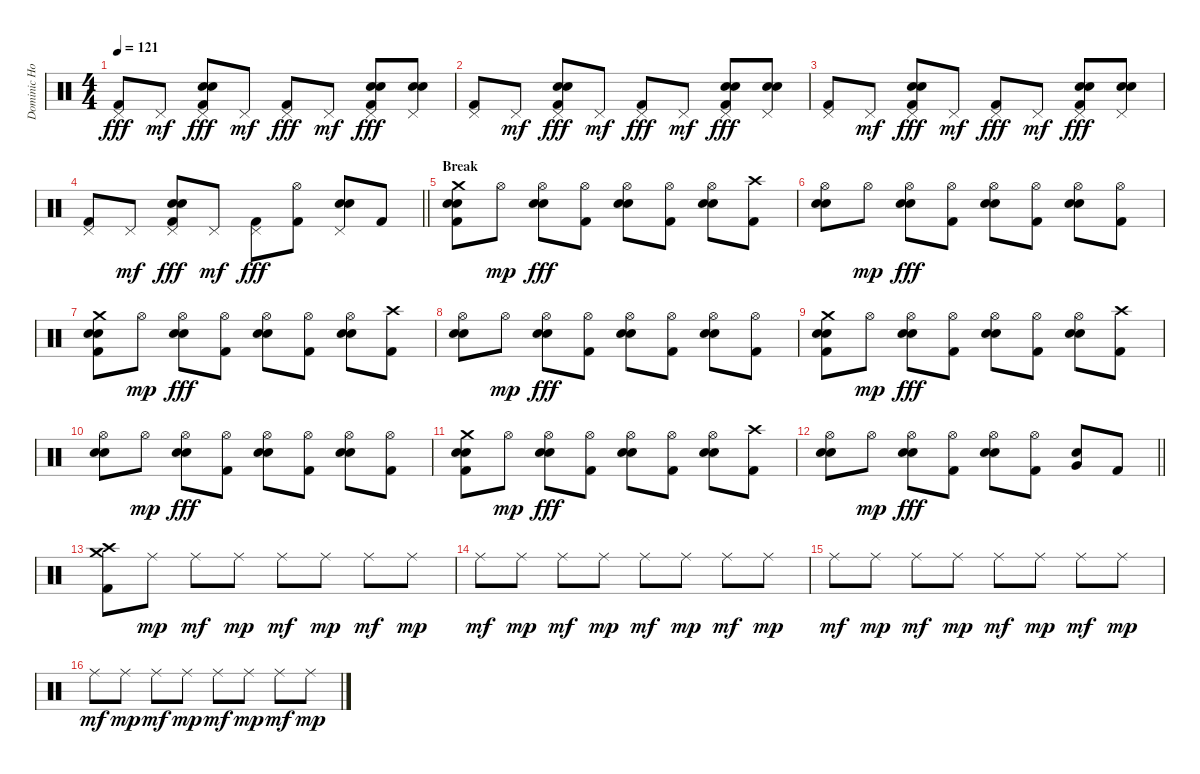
\track ("Dominic Howard" "Dominic Ho") {instrument percussion}
\staff {score}
\articulation defaults
\ts (4 4)
\tempo 121
\clef neutral
\ks c
("Pedal Hi-Hat (hit)" "Kick (hit) 2").8{dy fff} "Pedal Hi-Hat (hit)".8{dy mf} ("Pedal Hi-Hat (hit)" "Hand Clap (hit)" "Electric Snare (hit)" "Kick (hit) 2").8{dy fff} "Pedal Hi-Hat (hit)".8{dy mf} ("Pedal Hi-Hat (hit)" "Kick (hit) 2").8{dy fff} "Pedal Hi-Hat (hit)".8{dy mf} ("Pedal Hi-Hat (hit)" "Hand Clap (hit)" "Electric Snare (hit)" "Kick (hit) 2").8{dy fff} ("Pedal Hi-Hat (hit)" "Hand Clap (hit)" "Electric Snare (hit)").8 |
("Pedal Hi-Hat (hit)" "Kick (hit) 2").8 "Pedal Hi-Hat (hit)".8{dy mf} ("Pedal Hi-Hat (hit)" "Hand Clap (hit)" "Electric Snare (hit)" "Kick (hit) 2").8{dy fff} "Pedal Hi-Hat (hit)".8{dy mf} ("Pedal Hi-Hat (hit)" "Kick (hit) 2").8{dy fff} "Pedal Hi-Hat (hit)".8{dy mf} ("Pedal Hi-Hat (hit)" "Hand Clap (hit)" "Electric Snare (hit)" "Kick (hit) 2").8{dy fff} ("Pedal Hi-Hat (hit)" "Hand Clap (hit)" "Electric Snare (hit)").8 |
("Pedal Hi-Hat (hit)" "Kick (hit) 2").8 "Pedal Hi-Hat (hit)".8{dy mf} ("Pedal Hi-Hat (hit)" "Hand Clap (hit)" "Electric Snare (hit)" "Kick (hit) 2").8{dy fff} "Pedal Hi-Hat (hit)".8{dy mf} ("Pedal Hi-Hat (hit)" "Kick (hit) 2").8{dy fff} "Pedal Hi-Hat (hit)".8{dy mf} ("Pedal Hi-Hat (hit)" "Hand Clap (hit)" "Electric Snare (hit)" "Kick (hit) 2").8{dy fff} ("Pedal Hi-Hat (hit)" "Hand Clap (hit)" "Electric Snare (hit)").8 |
\barLineRight lightlight
("Pedal Hi-Hat (hit)" "Kick (hit) 2").8 "Pedal Hi-Hat (hit)".8{dy mf} ("Pedal Hi-Hat (hit)" "Hand Clap (hit)" "Electric Snare (hit)" "Kick (hit) 2").8{dy fff} "Pedal Hi-Hat (hit)".8{dy mf} ("Pedal Hi-Hat (hit)" "Kick (hit) 2").8{dy fff} ("Hi-Hat (open)" "Kick (hit) 2").8 ("Pedal Hi-Hat (hit)" "Hand Clap (hit)" "Electric Snare (hit)").8 "Kick (hit) 2".8 |
\section ("" "Break")
("Crash medium (hit)" "Snare (hit) 2" "Electric Snare (hit)" "Kick (hit) 2").8 "Hi-Hat (open)".8{dy mp} ("Hi-Hat (open)" "Snare (hit) 2" "Electric Snare (hit)").8{dy fff} ("Hi-Hat (open)" "Kick (hit) 2").8 ("Hi-Hat (open)" "Snare (hit) 2" "Electric Snare (hit)").8 ("Hi-Hat (open)" "Kick (hit) 2").8 ("Hi-Hat (open)" "Snare (hit) 2" "Electric Snare (hit)").8 ("Crash high (hit)" "Kick (hit) 2").8 |
("Hi-Hat (open)" "Snare (hit) 2" "Electric Snare (hit)").8 "Hi-Hat (open)".8{dy mp} ("Hi-Hat (open)" "Snare (hit) 2" "Electric Snare (hit)").8{dy fff} ("Hi-Hat (open)" "Kick (hit) 2").8 ("Hi-Hat (open)" "Snare (hit) 2" "Electric Snare (hit)").8 ("Hi-Hat (open)" "Kick (hit) 2").8 ("Hi-Hat (open)" "Snare (hit) 2" "Electric Snare (hit)").8 ("Hi-Hat (open)" "Kick (hit) 2").8 |
("Crash medium (hit)" "Snare (hit) 2" "Electric Snare (hit)" "Kick (hit) 2").8 "Hi-Hat (open)".8{dy mp} ("Hi-Hat (open)" "Snare (hit) 2" "Electric Snare (hit)").8{dy fff} ("Hi-Hat (open)" "Kick (hit) 2").8 ("Hi-Hat (open)" "Snare (hit) 2" "Electric Snare (hit)").8 ("Hi-Hat (open)" "Kick (hit) 2").8 ("Hi-Hat (open)" "Snare (hit) 2" "Electric Snare (hit)").8 ("Crash high (hit)" "Kick (hit) 2").8 |
("Hi-Hat (open)" "Snare (hit) 2" "Electric Snare (hit)").8 "Hi-Hat (open)".8{dy mp} ("Hi-Hat (open)" "Snare (hit) 2" "Electric Snare (hit)").8{dy fff} ("Hi-Hat (open)" "Kick (hit) 2").8 ("Hi-Hat (open)" "Snare (hit) 2" "Electric Snare (hit)").8 ("Hi-Hat (open)" "Kick (hit) 2").8 ("Hi-Hat (open)" "Snare (hit) 2" "Electric Snare (hit)").8 ("Hi-Hat (open)" "Kick (hit) 2").8 |
("Crash medium (hit)" "Snare (hit) 2" "Electric Snare (hit)" "Kick (hit) 2").8 "Hi-Hat (open)".8{dy mp} ("Hi-Hat (open)" "Snare (hit) 2" "Electric Snare (hit)").8{dy fff} ("Hi-Hat (open)" "Kick (hit) 2").8 ("Hi-Hat (open)" "Snare (hit) 2" "Electric Snare (hit)").8 ("Hi-Hat (open)" "Kick (hit) 2").8 ("Hi-Hat (open)" "Snare (hit) 2" "Electric Snare (hit)").8 ("Crash high (hit)" "Kick (hit) 2").8 |
("Hi-Hat (open)" "Snare (hit) 2" "Electric Snare (hit)").8 "Hi-Hat (open)".8{dy mp} ("Hi-Hat (open)" "Snare (hit) 2" "Electric Snare (hit)").8{dy fff} ("Hi-Hat (open)" "Kick (hit) 2").8 ("Hi-Hat (open)" "Snare (hit) 2" "Electric Snare (hit)").8 ("Hi-Hat (open)" "Kick (hit) 2").8 ("Hi-Hat (open)" "Snare (hit) 2" "Electric Snare (hit)").8 ("Hi-Hat (open)" "Kick (hit) 2").8 |
("Crash medium (hit)" "Snare (hit) 2" "Electric Snare (hit)" "Kick (hit) 2").8 "Hi-Hat (open)".8{dy mp} ("Hi-Hat (open)" "Snare (hit) 2" "Electric Snare (hit)").8{dy fff} ("Hi-Hat (open)" "Kick (hit) 2").8 ("Hi-Hat (open)" "Snare (hit) 2" "Electric Snare (hit)").8 ("Hi-Hat (open)" "Kick (hit) 2").8 ("Hi-Hat (open)" "Snare (hit) 2" "Electric Snare (hit)").8 ("Crash high (hit)" "Kick (hit) 2").8 |
\barLineRight lightlight
("Hi-Hat (open)" "Snare (hit) 2" "Electric Snare (hit)").8 "Hi-Hat (open)".8{dy mp} ("Hi-Hat (open)" "Snare (hit) 2" "Electric Snare (hit)").8{dy fff} ("Hi-Hat (open)" "Kick (hit) 2").8 ("Hi-Hat (open)" "Snare (hit) 2" "Electric Snare (hit)").8 ("Hi-Hat (open)" "Kick (hit) 2").8 ("Electric Snare (hit)" "Very Low Tom (hit)").8 "Kick (hit) 2".8 |
("Crash medium (hit)" "Crash high (hit)" "Kick (hit) 2").8 "Ride (middle)".8{dy mp} "Ride (middle)".8{dy mf} "Ride (middle)".8{dy mp} "Ride (middle)".8{dy mf} "Ride (middle)".8{dy mp} "Ride (middle)".8{dy mf} "Ride (middle)".8{dy mp} |
"Ride (middle)".8{dy mf} "Ride (middle)".8{dy mp} "Ride (middle)".8{dy mf} "Ride (middle)".8{dy mp} "Ride (middle)".8{dy mf} "Ride (middle)".8{dy mp} "Ride (middle)".8{dy mf} "Ride (middle)".8{dy mp} |
"Ride (middle)".8{dy mf} "Ride (middle)".8{dy mp} "Ride (middle)".8{dy mf} "Ride (middle)".8{dy mp} "Ride (middle)".8{dy mf} "Ride (middle)".8{dy mp} "Ride (middle)".8{dy mf} "Ride (middle)".8{dy mp} |
"Ride (middle)".8{dy mf} "Ride (middle)".8{dy mp} "Ride (middle)".8{dy mf} "Ride (middle)".8{dy mp} "Ride (middle)".8{dy mf} "Ride (middle)".8{dy mp} "Ride (middle)".8{dy mf} "Ride (middle)".8{dy mp}
